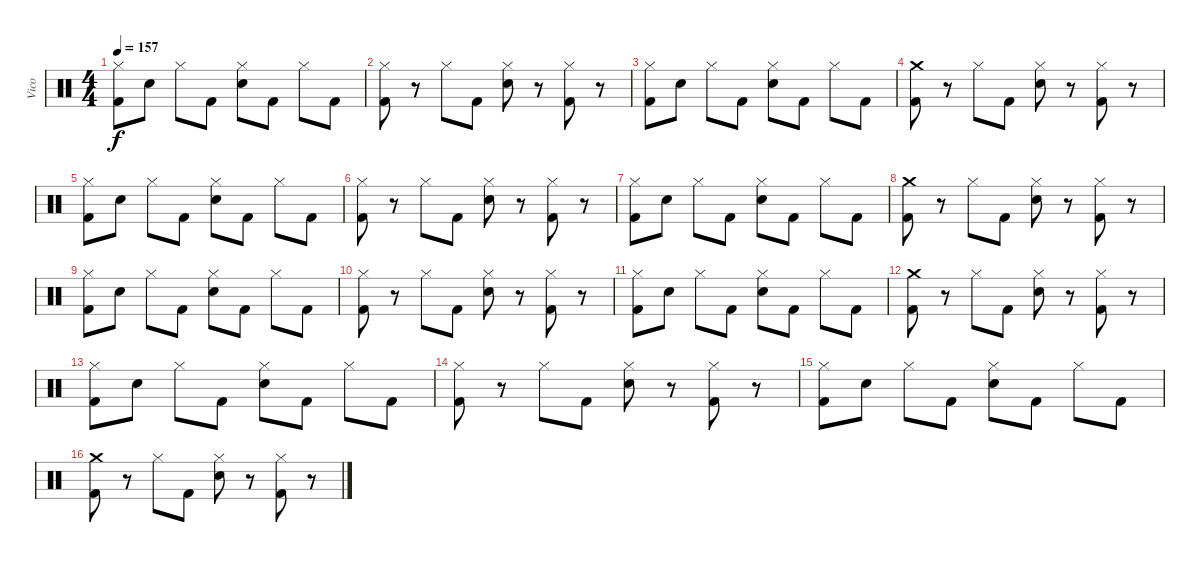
\track ("Vico" "Vico") {instrument percussion}
\staff {score}
\articulation defaults
\ts (4 4)
\tempo 157
\clef neutral
\ks c
("Hi-Hat (closed)" "Kick (hit) 2").8{dy f} "Electric Snare (hit)".8 "Hi-Hat (closed)".8 "Kick (hit) 2".8 ("Hi-Hat (closed)" "Electric Snare (hit)").8 "Kick (hit) 2".8 "Hi-Hat (closed)".8 "Kick (hit) 2".8 |
("Hi-Hat (closed)" "Kick (hit) 2").8 r.8 "Hi-Hat (closed)".8 "Kick (hit) 2".8 ("Hi-Hat (closed)" "Electric Snare (hit)").8 r.8 ("Hi-Hat (closed)" "Kick (hit) 2").8 r.8 |
("Hi-Hat (closed)" "Kick (hit) 2").8 "Electric Snare (hit)".8 "Hi-Hat (closed)".8 "Kick (hit) 2".8 ("Hi-Hat (closed)" "Electric Snare (hit)").8 "Kick (hit) 2".8 "Hi-Hat (closed)".8 "Kick (hit) 2".8 |
("Crash medium (hit)" "Kick (hit) 2").8 r.8 "Hi-Hat (closed)".8 "Kick (hit) 2".8 ("Hi-Hat (closed)" "Electric Snare (hit)").8 r.8 ("Hi-Hat (closed)" "Kick (hit) 2").8 r.8 |
("Hi-Hat (closed)" "Kick (hit) 2").8 "Electric Snare (hit)".8 "Hi-Hat (closed)".8 "Kick (hit) 2".8 ("Hi-Hat (closed)" "Electric Snare (hit)").8 "Kick (hit) 2".8 "Hi-Hat (closed)".8 "Kick (hit) 2".8 |
("Hi-Hat (closed)" "Kick (hit) 2").8 r.8 "Hi-Hat (closed)".8 "Kick (hit) 2".8 ("Hi-Hat (closed)" "Electric Snare (hit)").8 r.8 ("Hi-Hat (closed)" "Kick (hit) 2").8 r.8 |
("Hi-Hat (closed)" "Kick (hit) 2").8 "Electric Snare (hit)".8 "Hi-Hat (closed)".8 "Kick (hit) 2".8 ("Hi-Hat (closed)" "Electric Snare (hit)").8 "Kick (hit) 2".8 "Hi-Hat (closed)".8 "Kick (hit) 2".8 |
("Crash medium (hit)" "Kick (hit) 2").8 r.8 "Hi-Hat (closed)".8 "Kick (hit) 2".8 ("Hi-Hat (closed)" "Electric Snare (hit)").8 r.8 ("Hi-Hat (closed)" "Kick (hit) 2").8 r.8 |
("Hi-Hat (closed)" "Kick (hit) 2").8 "Electric Snare (hit)".8 "Hi-Hat (closed)".8 "Kick (hit) 2".8 ("Hi-Hat (closed)" "Electric Snare (hit)").8 "Kick (hit) 2".8 "Hi-Hat (closed)".8 "Kick (hit) 2".8 |
("Hi-Hat (closed)" "Kick (hit) 2").8 r.8 "Hi-Hat (closed)".8 "Kick (hit) 2".8 ("Hi-Hat (closed)" "Electric Snare (hit)").8 r.8 ("Hi-Hat (closed)" "Kick (hit) 2").8 r.8 |
("Hi-Hat (closed)" "Kick (hit) 2").8 "Electric Snare (hit)".8 "Hi-Hat (closed)".8 "Kick (hit) 2".8 ("Hi-Hat (closed)" "Electric Snare (hit)").8 "Kick (hit) 2".8 "Hi-Hat (closed)".8 "Kick (hit) 2".8 |
("Crash medium (hit)" "Kick (hit) 2").8 r.8 "Hi-Hat (closed)".8 "Kick (hit) 2".8 ("Hi-Hat (closed)" "Electric Snare (hit)").8 r.8 ("Hi-Hat (closed)" "Kick (hit) 2").8 r.8 |
("Hi-Hat (closed)" "Kick (hit) 2").8 "Electric Snare (hit)".8 "Hi-Hat (closed)".8 "Kick (hit) 2".8 ("Hi-Hat (closed)" "Electric Snare (hit)").8 "Kick (hit) 2".8 "Hi-Hat (closed)".8 "Kick (hit) 2".8 |
("Hi-Hat (closed)" "Kick (hit) 2").8 r.8 "Hi-Hat (closed)".8 "Kick (hit) 2".8 ("Hi-Hat (closed)" "Electric Snare (hit)").8 r.8 ("Hi-Hat (closed)" "Kick (hit) 2").8 r.8 |
("Hi-Hat (closed)" "Kick (hit) 2").8 "Electric Snare (hit)".8 "Hi-Hat (closed)".8 "Kick (hit) 2".8 ("Hi-Hat (closed)" "Electric Snare (hit)").8 "Kick (hit) 2".8 "Hi-Hat (closed)".8 "Kick (hit) 2".8 |
("Crash medium (hit)" "Kick (hit) 2").8 r.8 "Hi-Hat (closed)".8 "Kick (hit) 2".8 ("Hi-Hat (closed)" "Electric Snare (hit)").8 r.8 ("Hi-Hat (closed)" "Kick (hit) 2").8 r.8
